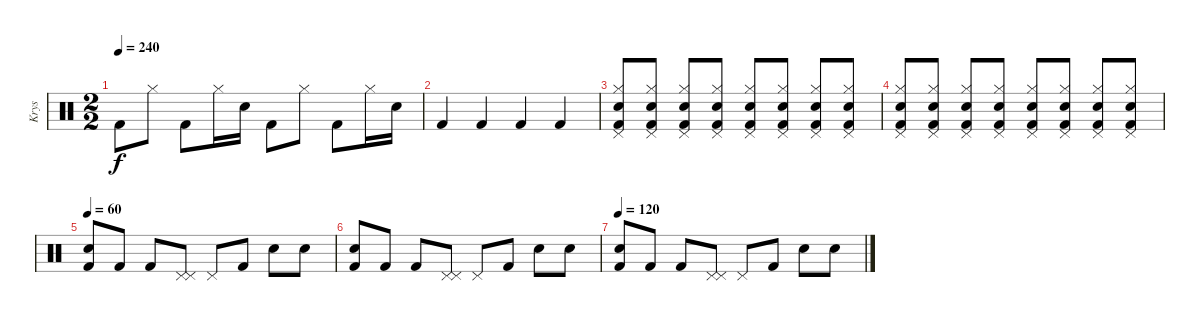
\track ("Krys" "Krys") {instrument percussion}
\staff {score}
\articulation defaults
\ts (2 2)
\tempo 240
\clef neutral
\ks c "Kick (hit) 2".8{dy f} "Hi-Hat (closed)".8 "Kick (hit) 2".8 "Hi-Hat (closed)".16 "Snare (hit) 2".16 "Kick (hit) 2".8 "Hi-Hat (closed)".8 "Kick (hit) 2".8 "Hi-Hat (closed)".16 "Snare (hit) 2".16
|
"Kick (hit) 2".4 "Kick (hit) 2".4 "Kick (hit) 2".4 "Kick (hit) 2".4 |
("Hi-Hat (closed)" "Snare (hit) 2" "Pedal Hi-Hat (hit)" "Kick (hit) 2").8 ("Hi-Hat (closed)" "Snare (hit) 2" "Pedal Hi-Hat (hit)" "Kick (hit) 2").8 ("Hi-Hat (closed)" "Snare (hit) 2" "Pedal Hi-Hat (hit)" "Kick (hit) 2").8 ("Hi-Hat (closed)" "Snare (hit) 2" "Pedal Hi-Hat (hit)" "Kick (hit) 2").8 ("Hi-Hat (closed)" "Snare (hit) 2" "Pedal Hi-Hat (hit)" "Kick (hit) 2").8 ("Hi-Hat (closed)" "Snare (hit) 2" "Pedal Hi-Hat (hit)" "Kick (hit) 2").8 ("Hi-Hat (closed)" "Snare (hit) 2" "Pedal Hi-Hat (hit)" "Kick (hit) 2").8 ("Hi-Hat (closed)" "Snare (hit) 2" "Pedal Hi-Hat (hit)" "Kick (hit) 2").8 |
("Hi-Hat (closed)" "Snare (hit) 2" "Kick (hit) 2" "Pedal Hi-Hat (hit)").8 ("Hi-Hat (closed)" "Snare (hit) 2" "Kick (hit) 2" "Pedal Hi-Hat (hit)").8 ("Hi-Hat (closed)" "Snare (hit) 2" "Kick (hit) 2" "Pedal Hi-Hat (hit)").8 ("Hi-Hat (closed)" "Snare (hit) 2" "Kick (hit) 2" "Pedal Hi-Hat (hit)").8 ("Hi-Hat (closed)" "Snare (hit) 2" "Kick (hit) 2" "Pedal Hi-Hat (hit)").8 ("Hi-Hat (closed)" "Snare (hit) 2" "Kick (hit) 2" "Pedal Hi-Hat (hit)").8 ("Hi-Hat (closed)" "Snare (hit) 2" "Kick (hit) 2" "Pedal Hi-Hat (hit)").8 ("Hi-Hat (closed)" "Snare (hit) 2" "Kick (hit) 2" "Pedal Hi-Hat (hit)").8 |
\tempo 60
("Snare (hit) 2" "Kick (hit) 2").8 "Kick (hit) 2".8 "Kick (hit) 2".8 ("Pedal Hi-Hat (hit)" "Pedal Hi-Hat (hit)").8 "Pedal Hi-Hat (hit)".8 "Kick (hit) 2".8 "Snare (hit) 2".8 "Snare (hit) 2".8 |
("Snare (hit) 2" "Kick (hit) 2").8 "Kick (hit) 2".8 "Kick (hit) 2".8 ("Pedal Hi-Hat (hit)" "Pedal Hi-Hat (hit)").8 "Pedal Hi-Hat (hit)".8 "Kick (hit) 2".8 "Snare (hit) 2".8 "Snare (hit) 2".8 |
\tempo 120
("Snare (hit) 2" "Kick (hit) 2").8 "Kick (hit) 2".8 "Kick (hit) 2".8 ("Pedal Hi-Hat (hit)" "Pedal Hi-Hat (hit)").8 "Pedal Hi-Hat (hit)".8 "Kick (hit) 2".8 "Snare (hit) 2".8 "Snare (hit) 2".8
